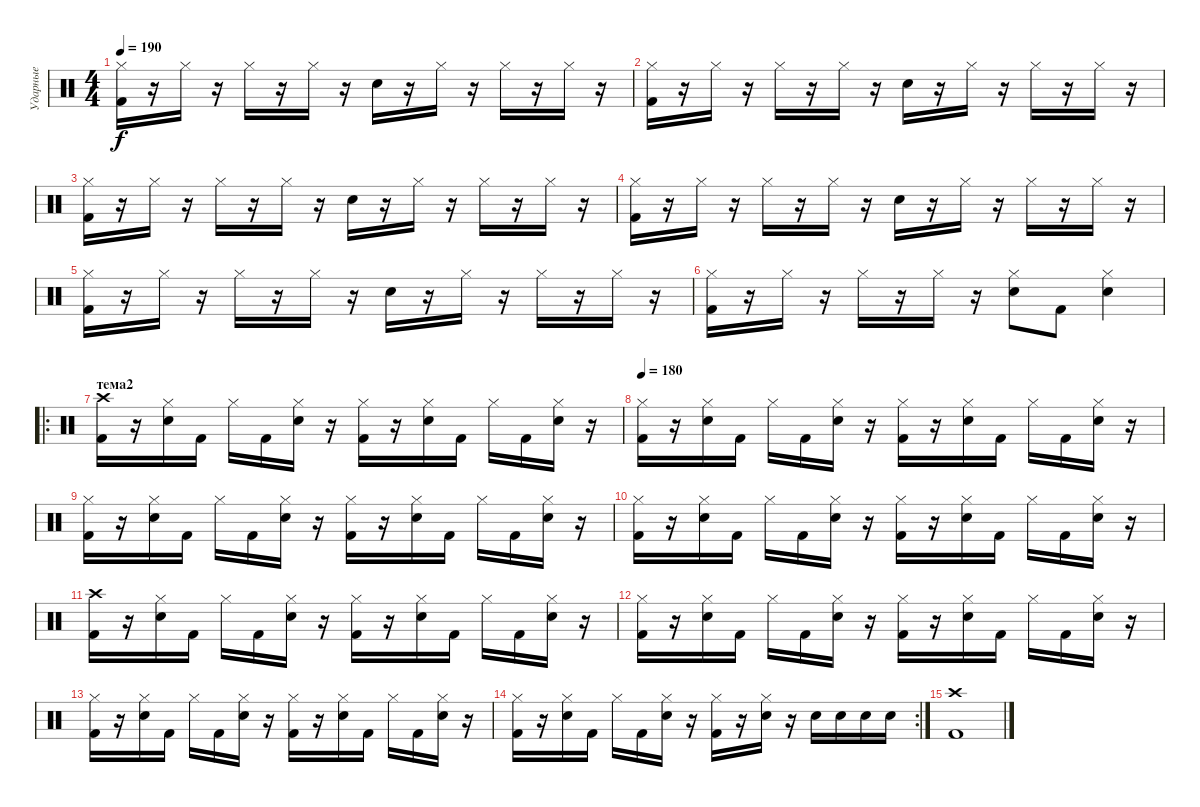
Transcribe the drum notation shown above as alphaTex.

\track ("Ударные" "Ударные") {instrument percussion}
\staff {score}
\articulation defaults
\ts (4 4)
\tempo 190
\clef neutral
\ks c
("Hi-Hat (closed)" "Kick (hit) 2").16{dy f} r.16 "Hi-Hat (closed)".16 r.16 "Hi-Hat (closed)".16 r.16 "Hi-Hat (closed)".16 r.16 "Snare (hit) 2".16 r.16 "Hi-Hat (closed)".16 r.16 "Hi-Hat (closed)".16 r.16 "Hi-Hat (closed)".16 r.16 |
("Hi-Hat (closed)" "Kick (hit) 2").16 r.16 "Hi-Hat (closed)".16 r.16 "Hi-Hat (closed)".16 r.16 "Hi-Hat (closed)".16 r.16 "Snare (hit) 2".16 r.16 "Hi-Hat (closed)".16 r.16 "Hi-Hat (closed)".16 r.16 "Hi-Hat (closed)".16 r.16 |
("Hi-Hat (closed)" "Kick (hit) 2").16 r.16 "Hi-Hat (closed)".16 r.16 "Hi-Hat (closed)".16 r.16 "Hi-Hat (closed)".16 r.16 "Snare (hit) 2".16 r.16 "Hi-Hat (closed)".16 r.16 "Hi-Hat (closed)".16 r.16 "Hi-Hat (closed)".16 r.16 |
("Hi-Hat (closed)" "Kick (hit) 2").16 r.16 "Hi-Hat (closed)".16 r.16 "Hi-Hat (closed)".16 r.16 "Hi-Hat (closed)".16 r.16 "Snare (hit) 2".16 r.16 "Hi-Hat (closed)".16 r.16 "Hi-Hat (closed)".16 r.16 "Hi-Hat (closed)".16 r.16 |
("Hi-Hat (closed)" "Kick (hit) 2").16 r.16 "Hi-Hat (closed)".16 r.16 "Hi-Hat (closed)".16 r.16 "Hi-Hat (closed)".16 r.16 "Snare (hit) 2".16 r.16 "Hi-Hat (closed)".16 r.16 "Hi-Hat (closed)".16 r.16 "Hi-Hat (closed)".16 r.16 |
("Hi-Hat (closed)" "Kick (hit) 2").16 r.16 "Hi-Hat (closed)".16 r.16 "Hi-Hat (closed)".16 r.16 "Hi-Hat (closed)".16 r.16 ("Hi-Hat (closed)" "Snare (hit) 2").8 "Kick (hit) 2".8 ("Hi-Hat (closed)" "Snare (hit) 2").4 |
\ro
\section ("" "тема2")
("Crash high (hit)" "Kick (hit) 2").16 r.16 ("Hi-Hat (closed)" "Snare (hit) 2").16 "Kick (hit) 2".16 "Hi-Hat (closed)".16 "Kick (hit) 2".16 ("Hi-Hat (closed)" "Snare (hit) 2").16 r.16 ("Hi-Hat (closed)" "Kick (hit) 2").16 r.16 ("Hi-Hat (closed)" "Snare (hit) 2").16 "Kick (hit) 2".16 "Hi-Hat (closed)".16 "Kick (hit) 2".16 ("Hi-Hat (closed)" "Snare (hit) 2").16 r.16 |
\tempo 180
("Hi-Hat (closed)" "Kick (hit) 2").16 r.16 ("Hi-Hat (closed)" "Snare (hit) 2").16 "Kick (hit) 2".16 "Hi-Hat (closed)".16 "Kick (hit) 2".16 ("Hi-Hat (closed)" "Snare (hit) 2").16 r.16 ("Hi-Hat (closed)" "Kick (hit) 2").16 r.16 ("Hi-Hat (closed)" "Snare (hit) 2").16 "Kick (hit) 2".16 "Hi-Hat (closed)".16 "Kick (hit) 2".16 ("Hi-Hat (closed)" "Snare (hit) 2").16 r.16 |
("Hi-Hat (closed)" "Kick (hit) 2").16 r.16 ("Hi-Hat (closed)" "Snare (hit) 2").16 "Kick (hit) 2".16 "Hi-Hat (closed)".16 "Kick (hit) 2".16 ("Hi-Hat (closed)" "Snare (hit) 2").16 r.16 ("Hi-Hat (closed)" "Kick (hit) 2").16 r.16 ("Hi-Hat (closed)" "Snare (hit) 2").16 "Kick (hit) 2".16 "Hi-Hat (closed)".16 "Kick (hit) 2".16 ("Hi-Hat (closed)" "Snare (hit) 2").16 r.16 |
("Hi-Hat (closed)" "Kick (hit) 2").16 r.16 ("Hi-Hat (closed)" "Snare (hit) 2").16 "Kick (hit) 2".16 "Hi-Hat (closed)".16 "Kick (hit) 2".16 ("Hi-Hat (closed)" "Snare (hit) 2").16 r.16 ("Hi-Hat (closed)" "Kick (hit) 2").16 r.16 ("Hi-Hat (closed)" "Snare (hit) 2").16 "Kick (hit) 2".16 "Hi-Hat (closed)".16 "Kick (hit) 2".16 ("Hi-Hat (closed)" "Snare (hit) 2").16 r.16 |
("Crash high (hit)" "Kick (hit) 2").16 r.16 ("Hi-Hat (closed)" "Snare (hit) 2").16 "Kick (hit) 2".16 "Hi-Hat (closed)".16 "Kick (hit) 2".16 ("Hi-Hat (closed)" "Snare (hit) 2").16 r.16 ("Hi-Hat (closed)" "Kick (hit) 2").16 r.16 ("Hi-Hat (closed)" "Snare (hit) 2").16 "Kick (hit) 2".16 "Hi-Hat (closed)".16 "Kick (hit) 2".16 ("Hi-Hat (closed)" "Snare (hit) 2").16 r.16 |
("Hi-Hat (closed)" "Kick (hit) 2").16 r.16 ("Hi-Hat (closed)" "Snare (hit) 2").16 "Kick (hit) 2".16 "Hi-Hat (closed)".16 "Kick (hit) 2".16 ("Hi-Hat (closed)" "Snare (hit) 2").16 r.16 ("Hi-Hat (closed)" "Kick (hit) 2").16 r.16 ("Hi-Hat (closed)" "Snare (hit) 2").16 "Kick (hit) 2".16 "Hi-Hat (closed)".16 "Kick (hit) 2".16 ("Hi-Hat (closed)" "Snare (hit) 2").16 r.16 |
("Hi-Hat (closed)" "Kick (hit) 2").16 r.16 ("Hi-Hat (closed)" "Snare (hit) 2").16 "Kick (hit) 2".16 "Hi-Hat (closed)".16 "Kick (hit) 2".16 ("Hi-Hat (closed)" "Snare (hit) 2").16 r.16 ("Hi-Hat (closed)" "Kick (hit) 2").16 r.16 ("Hi-Hat (closed)" "Snare (hit) 2").16 "Kick (hit) 2".16 "Hi-Hat (closed)".16 "Kick (hit) 2".16 ("Hi-Hat (closed)" "Snare (hit) 2").16 r.16 |
\rc 2
("Hi-Hat (closed)" "Kick (hit) 2").16 r.16 ("Hi-Hat (closed)" "Snare (hit) 2").16 "Kick (hit) 2".16 "Hi-Hat (closed)".16 "Kick (hit) 2".16 ("Hi-Hat (closed)" "Snare (hit) 2").16 r.16 ("Hi-Hat (closed)" "Kick (hit) 2").16 r.16 ("Hi-Hat (closed)" "Snare (hit) 2").16 r.16 "Snare (hit) 2".16 "Snare (hit) 2".16 "Snare (hit) 2".16 "Snare (hit) 2".16 |
("Kick (hit) 2" "Crash high (hit)").1
